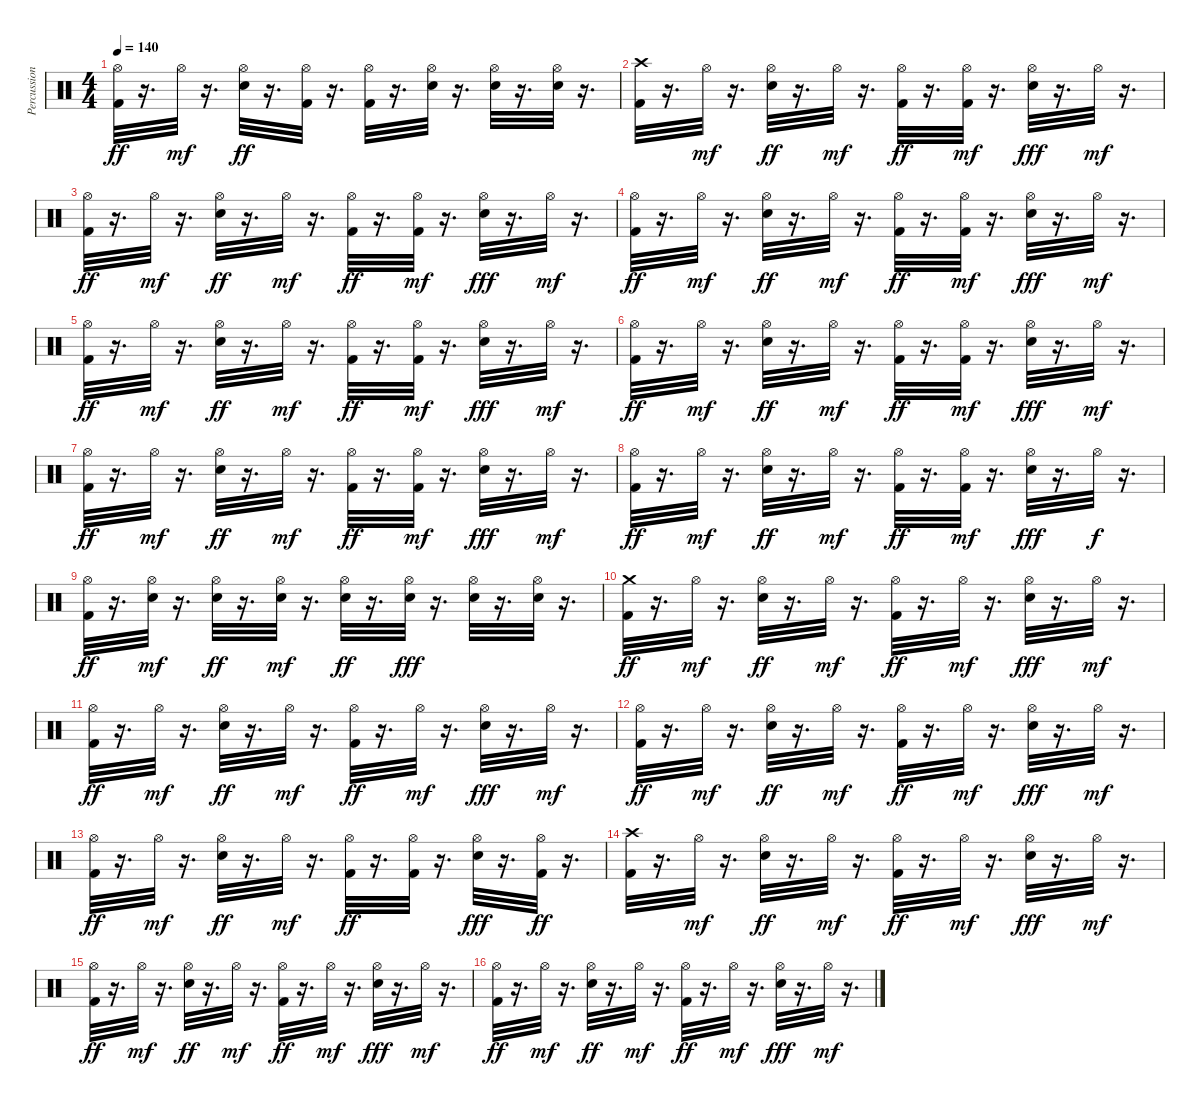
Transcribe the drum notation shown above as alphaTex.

\track ("Percussion" "Percussion") {instrument percussion}
\staff {score}
\articulation defaults
\ts (4 4)
\tempo 140
\clef neutral
\ks c
("Kick (hit) 2" "Hi-Hat (open)").32{dy ff} r.16{d} "Hi-Hat (open)".32{dy mf} r.16{d} ("Electric Snare (hit)" "Hi-Hat (open)").32{dy ff} r.16{d} ("Kick (hit) 2" "Hi-Hat (open)").32 r.16{d} ("Kick (hit) 2" "Hi-Hat (open)").32 r.16{d} ("Electric Snare (hit)" "Hi-Hat (open)").32 r.16{d} ("Electric Snare (hit)" "Hi-Hat (open)").32 r.16{d} ("Electric Snare (hit)" "Hi-Hat (open)").32 r.16{d} |
("Kick (hit) 2" "Crash high (hit)").32 r.16{d} "Hi-Hat (open)".32{dy mf} r.16{d} ("Electric Snare (hit)" "Hi-Hat (open)").32{dy ff} r.16{d} "Hi-Hat (open)".32{dy mf} r.16{d} ("Kick (hit) 2" "Hi-Hat (open)").32{dy ff} r.16{d} ("Kick (hit) 2" "Hi-Hat (open)").32{dy mf} r.16{d} ("Electric Snare (hit)" "Hi-Hat (open)").32{dy fff} r.16{d} "Hi-Hat (open)".32{dy mf} r.16{d} |
("Kick (hit) 2" "Hi-Hat (open)").32{dy ff} r.16{d} "Hi-Hat (open)".32{dy mf} r.16{d} ("Electric Snare (hit)" "Hi-Hat (open)").32{dy ff} r.16{d} "Hi-Hat (open)".32{dy mf} r.16{d} ("Kick (hit) 2" "Hi-Hat (open)").32{dy ff} r.16{d} ("Kick (hit) 2" "Hi-Hat (open)").32{dy mf} r.16{d} ("Electric Snare (hit)" "Hi-Hat (open)").32{dy fff} r.16{d} "Hi-Hat (open)".32{dy mf} r.16{d} |
("Kick (hit) 2" "Hi-Hat (open)").32{dy ff} r.16{d} "Hi-Hat (open)".32{dy mf} r.16{d} ("Electric Snare (hit)" "Hi-Hat (open)").32{dy ff} r.16{d} "Hi-Hat (open)".32{dy mf} r.16{d} ("Kick (hit) 2" "Hi-Hat (open)").32{dy ff} r.16{d} ("Kick (hit) 2" "Hi-Hat (open)").32{dy mf} r.16{d} ("Electric Snare (hit)" "Hi-Hat (open)").32{dy fff} r.16{d} "Hi-Hat (open)".32{dy mf} r.16{d} |
("Kick (hit) 2" "Hi-Hat (open)").32{dy ff} r.16{d} "Hi-Hat (open)".32{dy mf} r.16{d} ("Electric Snare (hit)" "Hi-Hat (open)").32{dy ff} r.16{d} "Hi-Hat (open)".32{dy mf} r.16{d} ("Kick (hit) 2" "Hi-Hat (open)").32{dy ff} r.16{d} ("Kick (hit) 2" "Hi-Hat (open)").32{dy mf} r.16{d} ("Electric Snare (hit)" "Hi-Hat (open)").32{dy fff} r.16{d} "Hi-Hat (open)".32{dy mf} r.16{d} |
("Kick (hit) 2" "Hi-Hat (open)").32{dy ff} r.16{d} "Hi-Hat (open)".32{dy mf} r.16{d} ("Electric Snare (hit)" "Hi-Hat (open)").32{dy ff} r.16{d} "Hi-Hat (open)".32{dy mf} r.16{d} ("Kick (hit) 2" "Hi-Hat (open)").32{dy ff} r.16{d} ("Kick (hit) 2" "Hi-Hat (open)").32{dy mf} r.16{d} ("Electric Snare (hit)" "Hi-Hat (open)").32{dy fff} r.16{d} "Hi-Hat (open)".32{dy mf} r.16{d} |
("Kick (hit) 2" "Hi-Hat (open)").32{dy ff} r.16{d} "Hi-Hat (open)".32{dy mf} r.16{d} ("Electric Snare (hit)" "Hi-Hat (open)").32{dy ff} r.16{d} "Hi-Hat (open)".32{dy mf} r.16{d} ("Kick (hit) 2" "Hi-Hat (open)").32{dy ff} r.16{d} ("Kick (hit) 2" "Hi-Hat (open)").32{dy mf} r.16{d} ("Electric Snare (hit)" "Hi-Hat (open)").32{dy fff} r.16{d} "Hi-Hat (open)".32{dy mf} r.16{d} |
("Kick (hit) 2" "Hi-Hat (open)").32{dy ff} r.16{d} "Hi-Hat (open)".32{dy mf} r.16{d} ("Electric Snare (hit)" "Hi-Hat (open)").32{dy ff} r.16{d} "Hi-Hat (open)".32{dy mf} r.16{d} ("Kick (hit) 2" "Hi-Hat (open)").32{dy ff} r.16{d} ("Kick (hit) 2" "Hi-Hat (open)").32{dy mf} r.16{d} ("Electric Snare (hit)" "Hi-Hat (open)").32{dy fff} r.16{d} "Hi-Hat (open)".32{dy f} r.16{d} |
("Kick (hit) 2" "Hi-Hat (open)").32{dy ff} r.16{d} ("Electric Snare (hit)" "Hi-Hat (open)").32{dy mf} r.16{d} ("Electric Snare (hit)" "Hi-Hat (open)").32{dy ff} r.16{d} ("Electric Snare (hit)" "Hi-Hat (open)").32{dy mf} r.16{d} ("Electric Snare (hit)" "Hi-Hat (open)").32{dy ff} r.16{d} ("Hi-Hat (open)" "Electric Snare (hit)").32{dy fff} r.16{d} ("Hi-Hat (open)" "Electric Snare (hit)").32 r.16{d} ("Hi-Hat (open)" "Electric Snare (hit)").32 r.16{d} |
("Kick (hit) 2" "Crash medium (hit)").32{dy ff} r.16{d} "Hi-Hat (open)".32{dy mf} r.16{d} ("Electric Snare (hit)" "Hi-Hat (open)").32{dy ff} r.16{d} "Hi-Hat (open)".32{dy mf} r.16{d} ("Kick (hit) 2" "Hi-Hat (open)").32{dy ff} r.16{d} "Hi-Hat (open)".32{dy mf} r.16{d} ("Electric Snare (hit)" "Hi-Hat (open)").32{dy fff} r.16{d} "Hi-Hat (open)".32{dy mf} r.16{d} |
("Kick (hit) 2" "Hi-Hat (open)").32{dy ff} r.16{d} "Hi-Hat (open)".32{dy mf} r.16{d} ("Electric Snare (hit)" "Hi-Hat (open)").32{dy ff} r.16{d} "Hi-Hat (open)".32{dy mf} r.16{d} ("Kick (hit) 2" "Hi-Hat (open)").32{dy ff} r.16{d} "Hi-Hat (open)".32{dy mf} r.16{d} ("Electric Snare (hit)" "Hi-Hat (open)").32{dy fff} r.16{d} "Hi-Hat (open)".32{dy mf} r.16{d} |
("Kick (hit) 2" "Hi-Hat (open)").32{dy ff} r.16{d} "Hi-Hat (open)".32{dy mf} r.16{d} ("Electric Snare (hit)" "Hi-Hat (open)").32{dy ff} r.16{d} "Hi-Hat (open)".32{dy mf} r.16{d} ("Kick (hit) 2" "Hi-Hat (open)").32{dy ff} r.16{d} "Hi-Hat (open)".32{dy mf} r.16{d} ("Electric Snare (hit)" "Hi-Hat (open)").32{dy fff} r.16{d} "Hi-Hat (open)".32{dy mf} r.16{d} |
("Kick (hit) 2" "Hi-Hat (open)").32{dy ff} r.16{d} "Hi-Hat (open)".32{dy mf} r.16{d} ("Electric Snare (hit)" "Hi-Hat (open)").32{dy ff} r.16{d} "Hi-Hat (open)".32{dy mf} r.16{d} ("Kick (hit) 2" "Hi-Hat (open)").32{dy ff} r.16{d} ("Hi-Hat (open)" "Kick (hit) 2").32 r.16{d} ("Electric Snare (hit)" "Hi-Hat (open)").32{dy fff} r.16{d} ("Hi-Hat (open)" "Kick (hit) 2").32{dy ff} r.16{d} |
("Kick (hit) 2" "Crash high (hit)").32 r.16{d} "Hi-Hat (open)".32{dy mf} r.16{d} ("Electric Snare (hit)" "Hi-Hat (open)").32{dy ff} r.16{d} "Hi-Hat (open)".32{dy mf} r.16{d} ("Hi-Hat (open)" "Kick (hit) 2").32{dy ff} r.16{d} "Hi-Hat (open)".32{dy mf} r.16{d} ("Electric Snare (hit)" "Hi-Hat (open)").32{dy fff} r.16{d} "Hi-Hat (open)".32{dy mf} r.16{d} |
("Kick (hit) 2" "Hi-Hat (open)").32{dy ff} r.16{d} "Hi-Hat (open)".32{dy mf} r.16{d} ("Electric Snare (hit)" "Hi-Hat (open)").32{dy ff} r.16{d} "Hi-Hat (open)".32{dy mf} r.16{d} ("Kick (hit) 2" "Hi-Hat (open)").32{dy ff} r.16{d} "Hi-Hat (open)".32{dy mf} r.16{d} ("Electric Snare (hit)" "Hi-Hat (open)").32{dy fff} r.16{d} "Hi-Hat (open)".32{dy mf} r.16{d} |
("Kick (hit) 2" "Hi-Hat (open)").32{dy ff} r.16{d} "Hi-Hat (open)".32{dy mf} r.16{d} ("Electric Snare (hit)" "Hi-Hat (open)").32{dy ff} r.16{d} "Hi-Hat (open)".32{dy mf} r.16{d} ("Kick (hit) 2" "Hi-Hat (open)").32{dy ff} r.16{d} "Hi-Hat (open)".32{dy mf} r.16{d} ("Electric Snare (hit)" "Hi-Hat (open)").32{dy fff} r.16{d} "Hi-Hat (open)".32{dy mf} r.16{d}
